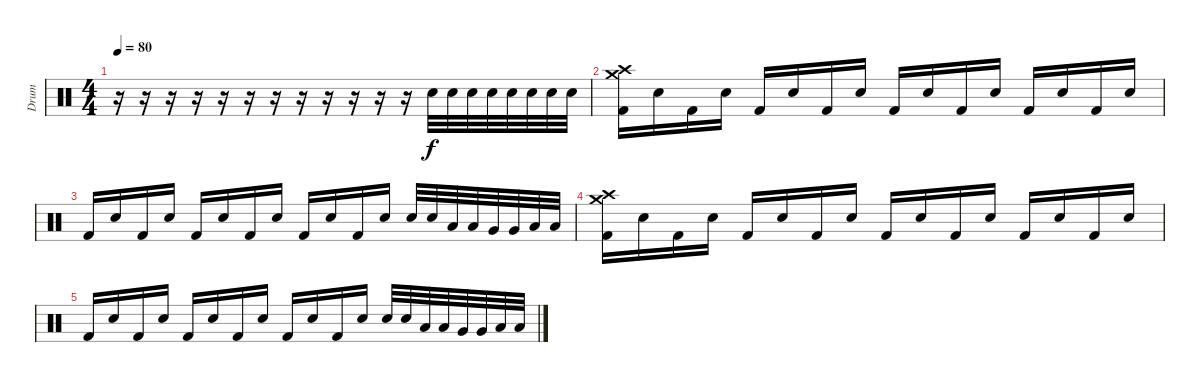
\track ("Drum" "Drum") {instrument percussion}
\staff {score}
\articulation defaults
\ts (4 4)
\tempo 80
\clef neutral
\ks c
r.16{dy f} r.16 r.16 r.16 r.16 r.16 r.16 r.16 r.16 r.16 r.16 r.16 "Snare (hit) 2".32 "Snare (hit) 2".32 "Snare (hit) 2".32 "Snare (hit) 2".32 "Snare (hit) 2".32 "Snare (hit) 2".32 "Snare (hit) 2".32 "Snare (hit) 2".32 |
("Kick (hit) 2" "Crash high (hit)" "Crash medium (hit)").16 "Snare (hit) 2".16 "Kick (hit) 2".16 "Snare (hit) 2".16 "Kick (hit) 2".16 "Snare (hit) 2".16 "Kick (hit) 2".16 "Snare (hit) 2".16 "Kick (hit) 2".16 "Snare (hit) 2".16 "Kick (hit) 2".16 "Snare (hit) 2".16 "Kick (hit) 2".16 "Snare (hit) 2".16 "Kick (hit) 2".16 "Snare (hit) 2".16 |
"Kick (hit) 2".16 "Snare (hit) 2".16 "Kick (hit) 2".16 "Snare (hit) 2".16 "Kick (hit) 2".16 "Snare (hit) 2".16 "Kick (hit) 2".16 "Snare (hit) 2".16 "Kick (hit) 2".16 "Snare (hit) 2".16 "Kick (hit) 2".16 "Snare (hit) 2".16 "Snare (hit) 2".32 "Snare (hit) 2".32 "Low Floor Tom (hit)".32 "Low Floor Tom (hit)".32 "Very Low Tom (hit)".32 "Very Low Tom (hit)".32 "Low Floor Tom (hit)".32 "Low Floor Tom (hit)".32 |
("Kick (hit) 2" "Crash high (hit)" "Crash medium (hit)").16 "Snare (hit) 2".16 "Kick (hit) 2".16 "Snare (hit) 2".16 "Kick (hit) 2".16 "Snare (hit) 2".16 "Kick (hit) 2".16 "Snare (hit) 2".16 "Kick (hit) 2".16 "Snare (hit) 2".16 "Kick (hit) 2".16 "Snare (hit) 2".16 "Kick (hit) 2".16 "Snare (hit) 2".16 "Kick (hit) 2".16 "Snare (hit) 2".16 |
"Kick (hit) 2".16 "Snare (hit) 2".16 "Kick (hit) 2".16 "Snare (hit) 2".16 "Kick (hit) 2".16 "Snare (hit) 2".16 "Kick (hit) 2".16 "Snare (hit) 2".16 "Kick (hit) 2".16 "Snare (hit) 2".16 "Kick (hit) 2".16 "Snare (hit) 2".16 "Snare (hit) 2".32 "Snare (hit) 2".32 "Low Floor Tom (hit)".32 "Low Floor Tom (hit)".32 "Very Low Tom (hit)".32 "Very Low Tom (hit)".32 "Low Floor Tom (hit)".32 "Low Floor Tom (hit)".32
